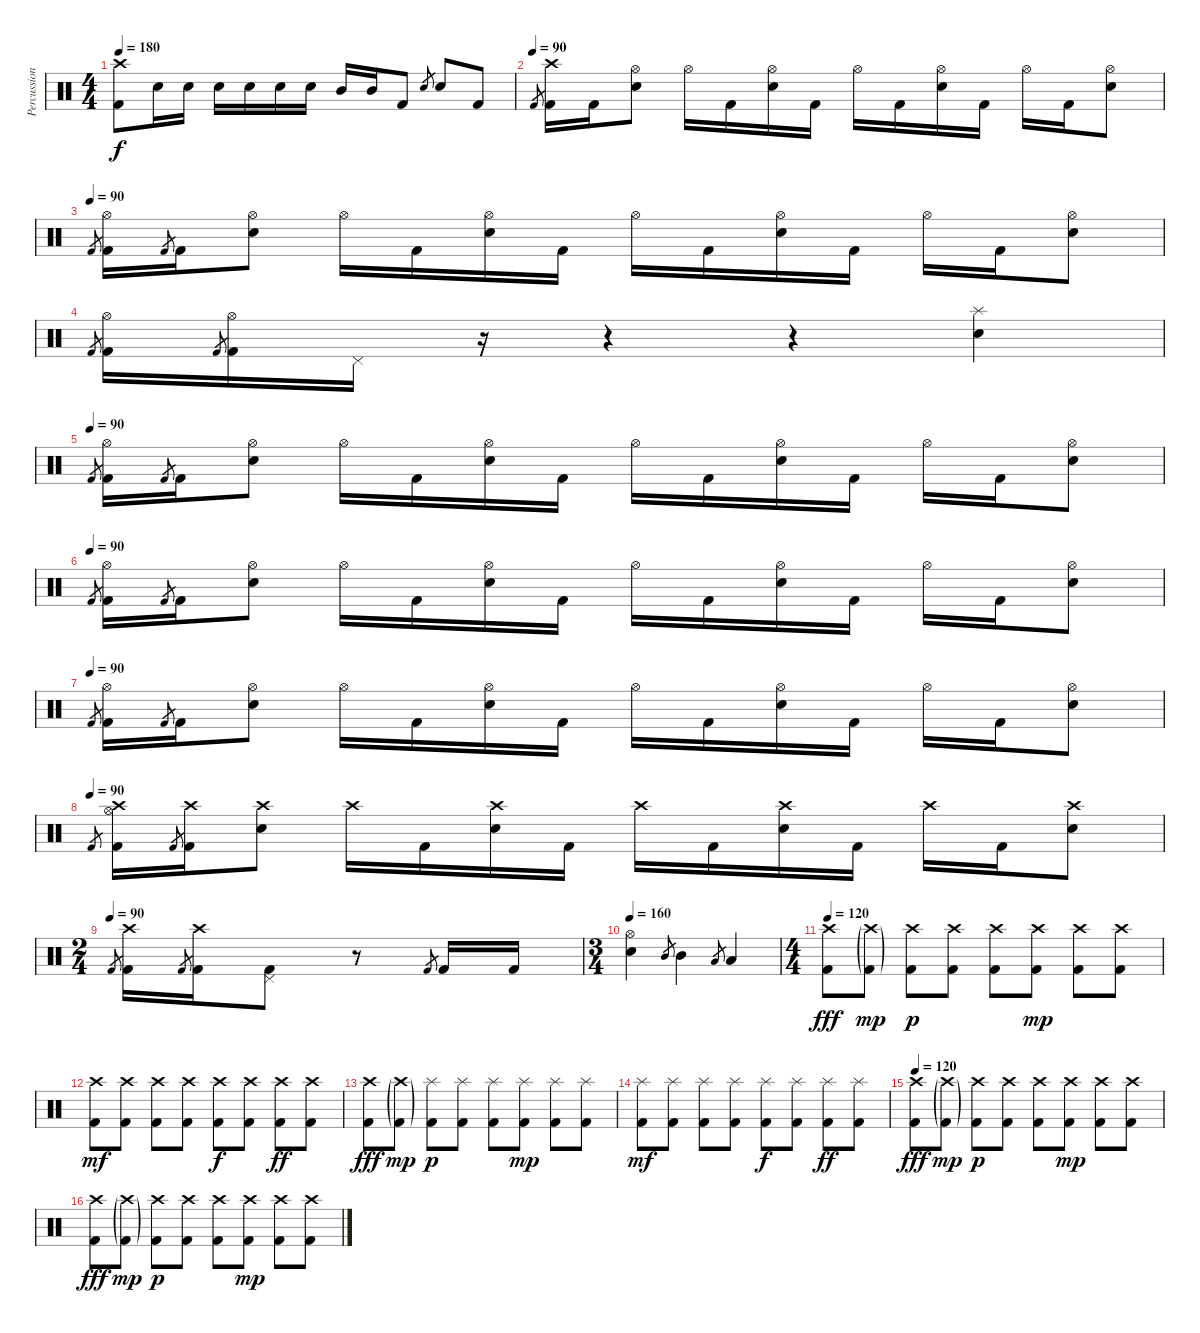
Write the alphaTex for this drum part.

\track ("Percussion" "Percussion") {instrument percussion}
\staff {score}
\articulation defaults
\ts (4 4)
\tempo 180
\clef neutral
\ks c
("Crash high (hit)" "Kick (hit) 2").8{dy f} "Electric Snare (hit)".16 "Electric Snare (hit)".16 "Electric Snare (hit)".16 "Electric Snare (hit)".16 "Electric Snare (hit)".16 "Electric Snare (hit)".16 "Mid Tom (hit)".16 "Mid Tom (hit)".16 "Kick (hit) 2".8 "Electric Snare (hit)".8{gr} "Electric Snare (hit)".8 "Kick (hit) 2".8 |
\tempo (90)
"Kick (hit) 2".8{gr} ("Crash high (hit)" "Kick (hit) 2").16 "Kick (hit) 2".16 ("Hi-Hat (open)" "Electric Snare (hit)").8 "Hi-Hat (open)".16 "Kick (hit) 2".16 ("Hi-Hat (open)" "Electric Snare (hit)").16 "Kick (hit) 2".16 "Hi-Hat (open)".16 "Kick (hit) 2".16 ("Hi-Hat (open)" "Electric Snare (hit)").16 "Kick (hit) 2".16 "Hi-Hat (open)".16 "Kick (hit) 2".16 ("Hi-Hat (open)" "Electric Snare (hit)").8 |
\tempo (90)
"Kick (hit) 2".8{gr} ("Hi-Hat (open)" "Kick (hit) 2").16 "Kick (hit) 2".8{gr} "Kick (hit) 2".16 ("Hi-Hat (open)" "Electric Snare (hit)").8 "Hi-Hat (open)".16 "Kick (hit) 2".16 ("Hi-Hat (open)" "Electric Snare (hit)").16 "Kick (hit) 2".16 "Hi-Hat (open)".16 "Kick (hit) 2".16 ("Hi-Hat (open)" "Electric Snare (hit)").16 "Kick (hit) 2".16 "Hi-Hat (open)".16 "Kick (hit) 2".16 ("Hi-Hat (open)" "Electric Snare (hit)").8 |
"Kick (hit) 2".8{gr} ("Hi-Hat (open)" "Kick (hit) 2").16 "Kick (hit) 2".8{gr} ("Hi-Hat (open)" "Kick (hit) 2").16 "Pedal Hi-Hat (hit)".16 r.16 r.4 r.4 ("Splash (hit)" "Electric Snare (hit)").4 |
\tempo (90)
"Kick (hit) 2".8{gr} ("Hi-Hat (open)" "Kick (hit) 2").16 "Kick (hit) 2".8{gr} "Kick (hit) 2".16 ("Hi-Hat (open)" "Electric Snare (hit)").8 "Hi-Hat (open)".16 "Kick (hit) 2".16 ("Hi-Hat (open)" "Electric Snare (hit)").16 "Kick (hit) 2".16 "Hi-Hat (open)".16 "Kick (hit) 2".16 ("Hi-Hat (open)" "Electric Snare (hit)").16 "Kick (hit) 2".16 "Hi-Hat (open)".16 "Kick (hit) 2".16 ("Hi-Hat (open)" "Electric Snare (hit)").8 |
\tempo (90)
"Kick (hit) 2".8{gr} ("Hi-Hat (open)" "Kick (hit) 2").16 "Kick (hit) 2".8{gr} "Kick (hit) 2".16 ("Hi-Hat (open)" "Electric Snare (hit)").8 "Hi-Hat (open)".16 "Kick (hit) 2".16 ("Hi-Hat (open)" "Electric Snare (hit)").16 "Kick (hit) 2".16 "Hi-Hat (open)".16 "Kick (hit) 2".16 ("Hi-Hat (open)" "Electric Snare (hit)").16 "Kick (hit) 2".16 "Hi-Hat (open)".16 "Kick (hit) 2".16 ("Hi-Hat (open)" "Electric Snare (hit)").8 |
\tempo (90)
"Kick (hit) 2".8{gr} ("Hi-Hat (open)" "Kick (hit) 2").16 "Kick (hit) 2".8{gr} "Kick (hit) 2".16 ("Hi-Hat (open)" "Electric Snare (hit)").8 "Hi-Hat (open)".16 "Kick (hit) 2".16 ("Hi-Hat (open)" "Electric Snare (hit)").16 "Kick (hit) 2".16 "Hi-Hat (open)".16 "Kick (hit) 2".16 ("Hi-Hat (open)" "Electric Snare (hit)").16 "Kick (hit) 2".16 "Hi-Hat (open)".16 "Kick (hit) 2".16 ("Hi-Hat (open)" "Electric Snare (hit)").8 |
\tempo (90)
"Kick (hit) 2".8{gr} ("Crash high (hit)" "Hi-Hat (open)" "Kick (hit) 2").16 "Kick (hit) 2".8{gr} ("Crash high (hit)" "Kick (hit) 2").16 ("Crash high (hit)" "Electric Snare (hit)").8 "Crash high (hit)".16 "Kick (hit) 2".16 ("Crash high (hit)" "Electric Snare (hit)").16 "Kick (hit) 2".16 "Crash high (hit)".16 "Kick (hit) 2".16 ("Crash high (hit)" "Electric Snare (hit)").16 "Kick (hit) 2".16 "Crash high (hit)".16 "Kick (hit) 2".16 ("Crash high (hit)" "Electric Snare (hit)").8 |
\ts (2 4)
\tempo (90)
"Kick (hit) 2".8{gr} ("Crash high (hit)" "Kick (hit) 2").16 "Kick (hit) 2".8{gr} ("Crash high (hit)" "Kick (hit) 2").16 ("Pedal Hi-Hat (hit)"{x} "Kick (hit) 2").8 r.8 "Kick (hit) 2".8{gr} "Kick (hit) 2".16 "Kick (hit) 2".16 |
\ts (3 4)
\tempo 160
("Hi-Hat (open)" "Electric Snare (hit)").4 "Mid Tom (hit)".8{gr} "Mid Tom (hit)".4 "Low Tom (hit)".8{gr} "Low Tom (hit)".4 |
\ts (4 4)
\tempo 120
("Crash high (hit)" "Kick (hit) 2").8{dy fff} ("Crash high (hit)"{g} "Kick (hit) 2"{g}).8{dy mp} ("Crash high (hit)" "Kick (hit) 2").8{dy p} ("Crash high (hit)" "Kick (hit) 2").8 ("Crash high (hit)" "Kick (hit) 2").8 ("Crash high (hit)" "Kick (hit) 2").8{dy mp} ("Crash high (hit)" "Kick (hit) 2").8 ("Crash high (hit)" "Kick (hit) 2").8 |
("Crash high (hit)" "Kick (hit) 2").8{dy mf} ("Crash high (hit)" "Kick (hit) 2").8 ("Crash high (hit)" "Kick (hit) 2").8 ("Crash high (hit)" "Kick (hit) 2").8 ("Crash high (hit)" "Kick (hit) 2").8{dy f} ("Crash high (hit)" "Kick (hit) 2").8 ("Crash high (hit)" "Kick (hit) 2").8{dy ff} ("Crash high (hit)" "Kick (hit) 2").8 |
("Crash high (hit)" "Kick (hit) 2").8{dy fff} ("Crash high (hit)"{g} "Kick (hit) 2"{g}).8{dy mp} ("Splash (hit)" "Kick (hit) 2").8{dy p} ("Splash (hit)" "Kick (hit) 2").8 ("Splash (hit)" "Kick (hit) 2").8 ("Splash (hit)" "Kick (hit) 2").8{dy mp} ("Splash (hit)" "Kick (hit) 2").8 ("Splash (hit)" "Kick (hit) 2").8 |
("Splash (hit)" "Kick (hit) 2").8{dy mf} ("Splash (hit)" "Kick (hit) 2").8 ("Splash (hit)" "Kick (hit) 2").8 ("Splash (hit)" "Kick (hit) 2").8 ("Splash (hit)" "Kick (hit) 2").8{dy f} ("Splash (hit)" "Kick (hit) 2").8 ("Splash (hit)" "Kick (hit) 2").8{dy ff} ("Splash (hit)" "Kick (hit) 2").8 |
\tempo 120
("Crash high (hit)" "Kick (hit) 2").8{dy fff} ("Crash high (hit)"{g} "Kick (hit) 2"{g}).8{dy mp} ("Crash high (hit)" "Kick (hit) 2").8{dy p} ("Crash high (hit)" "Kick (hit) 2").8 ("Crash high (hit)" "Kick (hit) 2").8 ("Crash high (hit)" "Kick (hit) 2").8{dy mp} ("Crash high (hit)" "Kick (hit) 2").8 ("Crash high (hit)" "Kick (hit) 2").8 |
("Crash high (hit)" "Kick (hit) 2").8{dy fff} ("Crash high (hit)"{g} "Kick (hit) 2"{g}).8{dy mp} ("Crash high (hit)" "Kick (hit) 2").8{dy p} ("Crash high (hit)" "Kick (hit) 2").8 ("Crash high (hit)" "Kick (hit) 2").8 ("Crash high (hit)" "Kick (hit) 2").8{dy mp} ("Crash high (hit)" "Kick (hit) 2").8 ("Crash high (hit)" "Kick (hit) 2").8
